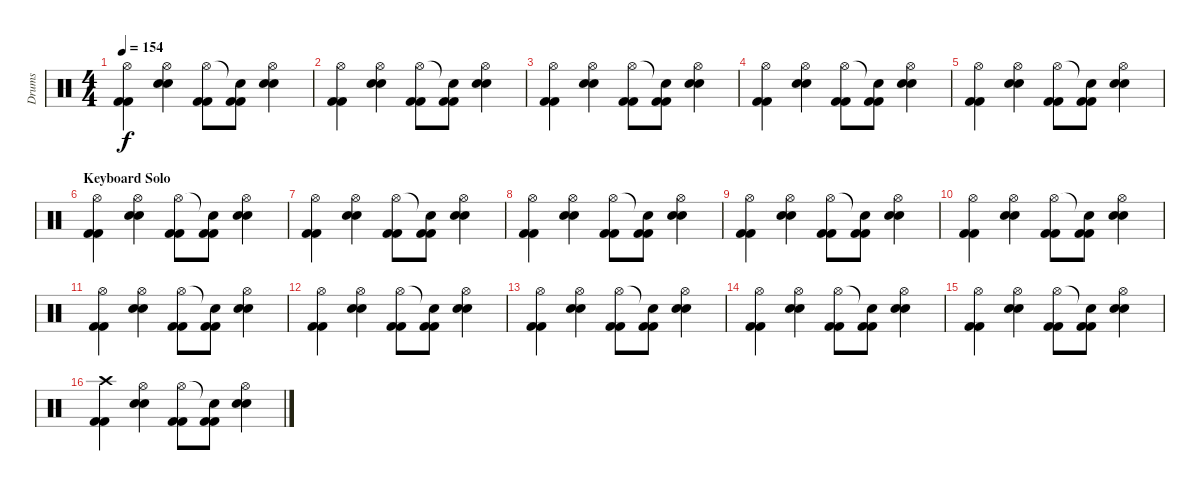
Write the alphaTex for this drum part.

\track ("Drums" "Drums") {instrument percussion}
\staff {score}
\articulation defaults
\ts (4 4)
\tempo 154
\clef neutral
\ks c
("Hi-Hat (open)" "Kick (hit) 2" "Kick (hit) 2").4{dy f} ("Hi-Hat (open)" "Snare (hit) 2" "Snare (hit) 2").4 ("Hi-Hat (open)" "Kick (hit) 2" "Kick (hit) 2").8 ("Snare (hit)"{t} "Kick (hit) 2" "Kick (hit) 2").8 ("Hi-Hat (open)" "Snare (hit) 2" "Snare (hit) 2").4 |
("Hi-Hat (open)" "Kick (hit) 2" "Kick (hit) 2").4 ("Hi-Hat (open)" "Snare (hit) 2" "Snare (hit) 2").4 ("Hi-Hat (open)" "Kick (hit) 2" "Kick (hit) 2").8 ("Snare (hit)"{t} "Kick (hit) 2" "Kick (hit) 2").8 ("Hi-Hat (open)" "Snare (hit) 2" "Snare (hit) 2").4 |
("Hi-Hat (open)" "Kick (hit) 2" "Kick (hit) 2").4 ("Hi-Hat (open)" "Snare (hit) 2" "Snare (hit) 2").4 ("Hi-Hat (open)" "Kick (hit) 2" "Kick (hit) 2").8 ("Snare (hit)"{t} "Kick (hit) 2" "Kick (hit) 2").8 ("Hi-Hat (open)" "Snare (hit) 2" "Snare (hit) 2").4 |
("Hi-Hat (open)" "Kick (hit) 2" "Kick (hit) 2").4 ("Hi-Hat (open)" "Snare (hit) 2" "Snare (hit) 2").4 ("Hi-Hat (open)" "Kick (hit) 2" "Kick (hit) 2").8 ("Snare (hit)"{t} "Kick (hit) 2" "Kick (hit) 2").8 ("Hi-Hat (open)" "Snare (hit) 2" "Snare (hit) 2").4 |
("Hi-Hat (open)" "Kick (hit) 2" "Kick (hit) 2").4 ("Hi-Hat (open)" "Snare (hit) 2" "Snare (hit) 2").4 ("Hi-Hat (open)" "Kick (hit) 2" "Kick (hit) 2").8 ("Snare (hit)"{t} "Kick (hit) 2" "Kick (hit) 2").8 ("Hi-Hat (open)" "Snare (hit) 2" "Snare (hit) 2").4 |
\section ("" "Keyboard Solo")
("Hi-Hat (open)" "Kick (hit) 2" "Kick (hit) 2").4 ("Hi-Hat (open)" "Snare (hit) 2" "Snare (hit) 2").4 ("Hi-Hat (open)" "Kick (hit) 2" "Kick (hit) 2").8 ("Snare (hit)"{t} "Kick (hit) 2" "Kick (hit) 2").8 ("Hi-Hat (open)" "Snare (hit) 2" "Snare (hit) 2").4 |
("Hi-Hat (open)" "Kick (hit) 2" "Kick (hit) 2").4 ("Hi-Hat (open)" "Snare (hit) 2" "Snare (hit) 2").4 ("Hi-Hat (open)" "Kick (hit) 2" "Kick (hit) 2").8 ("Snare (hit)"{t} "Kick (hit) 2" "Kick (hit) 2").8 ("Hi-Hat (open)" "Snare (hit) 2" "Snare (hit) 2").4 |
("Hi-Hat (open)" "Kick (hit) 2" "Kick (hit) 2").4 ("Hi-Hat (open)" "Snare (hit) 2" "Snare (hit) 2").4 ("Hi-Hat (open)" "Kick (hit) 2" "Kick (hit) 2").8 ("Snare (hit)"{t} "Kick (hit) 2" "Kick (hit) 2").8 ("Hi-Hat (open)" "Snare (hit) 2" "Snare (hit) 2").4 |
("Hi-Hat (open)" "Kick (hit) 2" "Kick (hit) 2").4 ("Hi-Hat (open)" "Snare (hit) 2" "Snare (hit) 2").4 ("Hi-Hat (open)" "Kick (hit) 2" "Kick (hit) 2").8 ("Snare (hit)"{t} "Kick (hit) 2" "Kick (hit) 2").8 ("Hi-Hat (open)" "Snare (hit) 2" "Snare (hit) 2").4 |
("Hi-Hat (open)" "Kick (hit) 2" "Kick (hit) 2").4 ("Hi-Hat (open)" "Snare (hit) 2" "Snare (hit) 2").4 ("Hi-Hat (open)" "Kick (hit) 2" "Kick (hit) 2").8 ("Snare (hit)"{t} "Kick (hit) 2" "Kick (hit) 2").8 ("Hi-Hat (open)" "Snare (hit) 2" "Snare (hit) 2").4 |
("Hi-Hat (open)" "Kick (hit) 2" "Kick (hit) 2").4 ("Hi-Hat (open)" "Snare (hit) 2" "Snare (hit) 2").4 ("Hi-Hat (open)" "Kick (hit) 2" "Kick (hit) 2").8 ("Snare (hit)"{t} "Kick (hit) 2" "Kick (hit) 2").8 ("Hi-Hat (open)" "Snare (hit) 2" "Snare (hit) 2").4 |
("Hi-Hat (open)" "Kick (hit) 2" "Kick (hit) 2").4 ("Hi-Hat (open)" "Snare (hit) 2" "Snare (hit) 2").4 ("Hi-Hat (open)" "Kick (hit) 2" "Kick (hit) 2").8 ("Snare (hit)"{t} "Kick (hit) 2" "Kick (hit) 2").8 ("Hi-Hat (open)" "Snare (hit) 2" "Snare (hit) 2").4 |
("Hi-Hat (open)" "Kick (hit) 2" "Kick (hit) 2").4 ("Hi-Hat (open)" "Snare (hit) 2" "Snare (hit) 2").4 ("Hi-Hat (open)" "Kick (hit) 2" "Kick (hit) 2").8 ("Snare (hit)"{t} "Kick (hit) 2" "Kick (hit) 2").8 ("Hi-Hat (open)" "Snare (hit) 2" "Snare (hit) 2").4 |
("Hi-Hat (open)" "Kick (hit) 2" "Kick (hit) 2").4 ("Hi-Hat (open)" "Snare (hit) 2" "Snare (hit) 2").4 ("Hi-Hat (open)" "Kick (hit) 2" "Kick (hit) 2").8 ("Snare (hit)"{t} "Kick (hit) 2" "Kick (hit) 2").8 ("Hi-Hat (open)" "Snare (hit) 2" "Snare (hit) 2").4 |
("Hi-Hat (open)" "Kick (hit) 2" "Kick (hit) 2").4 ("Hi-Hat (open)" "Snare (hit) 2" "Snare (hit) 2").4 ("Hi-Hat (open)" "Kick (hit) 2" "Kick (hit) 2").8 ("Snare (hit)"{t} "Kick (hit) 2" "Kick (hit) 2").8 ("Hi-Hat (open)" "Snare (hit) 2" "Snare (hit) 2").4 |
("Crash high (hit)" "Kick (hit) 2" "Kick (hit) 2").4 ("Hi-Hat (open)" "Snare (hit) 2" "Snare (hit) 2").4 ("Hi-Hat (open)" "Kick (hit) 2" "Kick (hit) 2").8 ("Snare (hit)"{t} "Kick (hit) 2" "Kick (hit) 2").8 ("Hi-Hat (open)" "Snare (hit) 2" "Snare (hit) 2").4
